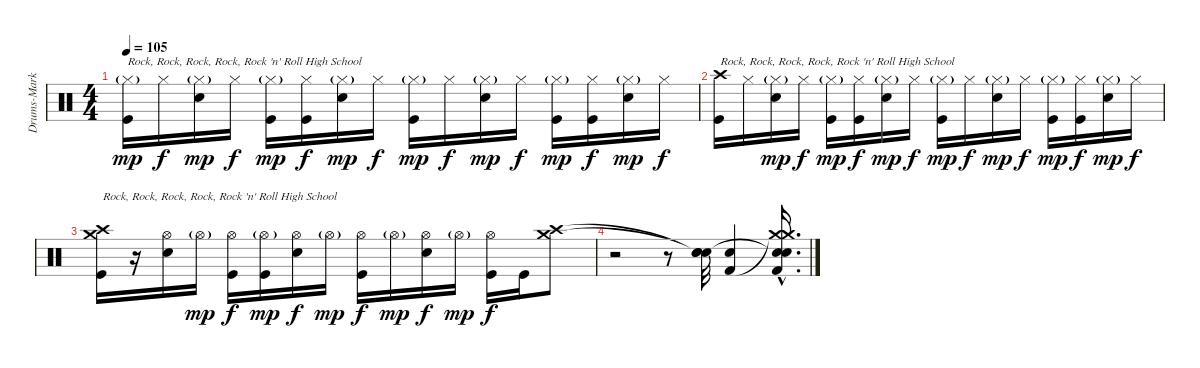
\track ("Drums-Marky Ramone" "Drums-Mark") {instrument percussion}
\staff {score}
\articulation defaults
\ts (4 4)
\tempo 105
\clef neutral
\ks c
("Hi-Hat (closed)"{g} "Kick (hit)").16{txt "Rock, Rock, Rock, Rock, Rock 'n' Roll High School" dy mp} "Hi-Hat (closed)".16{dy f} ("Hi-Hat (closed)"{g} "Snare (hit) 2").16{dy mp} "Hi-Hat (closed)".16{dy f} ("Hi-Hat (closed)"{g} "Kick (hit)").16{dy mp} ("Hi-Hat (closed)" "Kick (hit)").16{dy f} ("Hi-Hat (closed)"{g} "Snare (hit) 2").16{dy mp} "Hi-Hat (closed)".16{dy f} ("Hi-Hat (closed)"{g} "Kick (hit)").16{dy mp} "Hi-Hat (closed)".16{dy f} ("Hi-Hat (closed)"{g} "Snare (hit) 2").16{dy mp} "Hi-Hat (closed)".16{dy f} ("Hi-Hat (closed)"{g} "Kick (hit)").16{dy mp} ("Hi-Hat (closed)" "Kick (hit)").16{dy f} ("Hi-Hat (closed)"{g} "Snare (hit) 2").16{dy mp} "Hi-Hat (closed)".16{dy f} |
("Crash high (hit)" "Kick (hit)").16{txt "Rock, Rock, Rock, Rock, Rock 'n' Roll High School"} "Hi-Hat (closed)".16 ("Hi-Hat (closed)"{g} "Snare (hit) 2").16{dy mp} "Hi-Hat (closed)".16{dy f} ("Hi-Hat (closed)"{g} "Kick (hit)").16{dy mp} ("Hi-Hat (closed)" "Kick (hit)").16{dy f} ("Hi-Hat (closed)"{g} "Snare (hit) 2").16{dy mp} "Hi-Hat (closed)".16{dy f} ("Hi-Hat (closed)"{g} "Kick (hit)").16{dy mp} "Hi-Hat (closed)".16{dy f} ("Hi-Hat (closed)"{g} "Snare (hit) 2").16{dy mp} "Hi-Hat (closed)".16{dy f} ("Hi-Hat (closed)"{g} "Kick (hit)").16{dy mp} ("Hi-Hat (closed)" "Kick (hit)").16{dy f} ("Hi-Hat (closed)"{g} "Snare (hit) 2").16{dy mp} "Hi-Hat (closed)".16{dy f} |
("Crash medium (hit)" "Crash high (hit)" "Kick (hit)").16{txt "Rock, Rock, Rock, Rock, Rock 'n' Roll High School"} r.16 ("Hi-Hat (open)" "Snare (hit) 2").16 "Hi-Hat (open)"{g}.16{dy mp} ("Hi-Hat (open)" "Kick (hit)").16{dy f} ("Hi-Hat (open)"{g} "Kick (hit)").16{dy mp} ("Hi-Hat (open)" "Snare (hit) 2").16{dy f} "Hi-Hat (open)"{g}.16{dy mp} ("Hi-Hat (open)" "Kick (hit)").16{dy f} "Hi-Hat (open)"{g}.16{dy mp} ("Hi-Hat (open)" "Snare (hit) 2").16{dy f} "Hi-Hat (open)"{g}.16{dy mp} ("Hi-Hat (open)" "Kick (hit)").16{dy f} "Kick (hit)".16 ("Crash medium (hit)" "Crash high (hit)").8 |
r.2 r.8 ("Snare (hit)"{t} "Snare (hit)"{t} "Snare (hit) 2").32 ("Snare (hit) 2" "Kick (hit) 2").4 ("Crash medium (hit)"{hac} "Crash medium (hit)"{hac t} "Snare (hit)"{hac t} "Snare (hit) 2"{hac} "Kick (hit) 2"{hac}).16{d}
